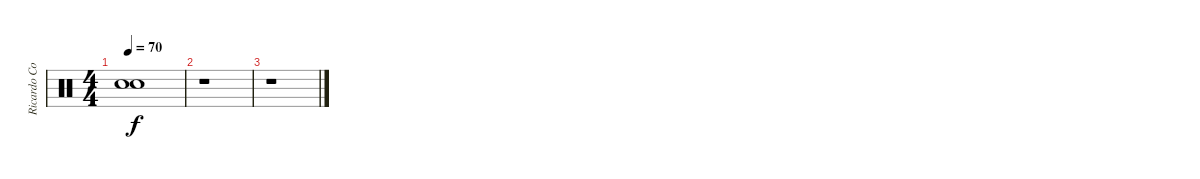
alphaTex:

\track ("Ricardo Confessori" "Ricardo Co") {instrument percussion}
\staff {score}
\articulation defaults
\ts (4 4)
\tempo 70
\clef neutral
\ks c
("Snare (hit)"{t} "Snare (hit)"{t}).1{dy f} |
r.1 |
r.1
